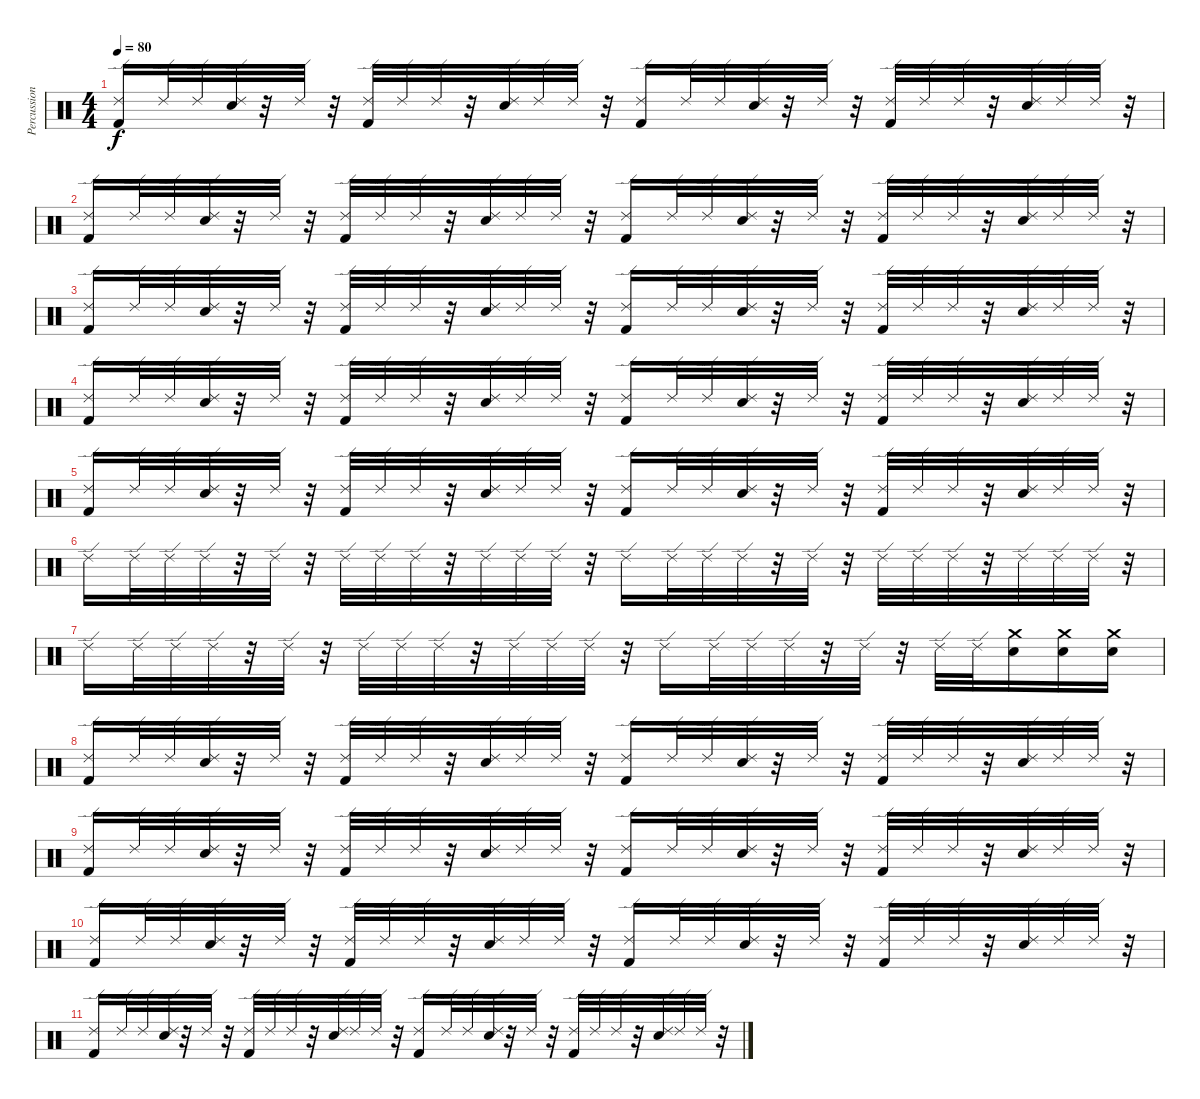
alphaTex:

\track ("Percussion" "Percussion") {instrument percussion}
\staff {score}
\articulation defaults
\ts (4 4)
\tempo 80
\clef neutral
\ks c
("Ride (edge) 2" "Kick (hit) 2").16{dy f} "Ride (edge) 2".32 "Ride (edge) 2".32 ("Ride (edge) 2" "Snare (hit) 2").32 r.32 "Ride (edge) 2".32 r.32 ("Ride (edge) 2" "Kick (hit) 2").32 "Ride (edge) 2".32 "Ride (edge) 2".32 r.32 ("Ride (edge) 2" "Snare (hit) 2").32 "Ride (edge) 2".32 "Ride (edge) 2".32 r.32 ("Ride (edge) 2" "Kick (hit) 2").16 "Ride (edge) 2".32 "Ride (edge) 2".32 ("Ride (edge) 2" "Snare (hit) 2").32 r.32 "Ride (edge) 2".32 r.32 ("Ride (edge) 2" "Kick (hit) 2").32 "Ride (edge) 2".32 "Ride (edge) 2".32 r.32 ("Ride (edge) 2" "Snare (hit) 2").32 "Ride (edge) 2".32 "Ride (edge) 2".32 r.32 |
("Ride (edge) 2" "Kick (hit) 2").16 "Ride (edge) 2".32 "Ride (edge) 2".32 ("Ride (edge) 2" "Snare (hit) 2").32 r.32 "Ride (edge) 2".32 r.32 ("Ride (edge) 2" "Kick (hit) 2").32 "Ride (edge) 2".32 "Ride (edge) 2".32 r.32 ("Ride (edge) 2" "Snare (hit) 2").32 "Ride (edge) 2".32 "Ride (edge) 2".32 r.32 ("Ride (edge) 2" "Kick (hit) 2").16 "Ride (edge) 2".32 "Ride (edge) 2".32 ("Ride (edge) 2" "Snare (hit) 2").32 r.32 "Ride (edge) 2".32 r.32 ("Ride (edge) 2" "Kick (hit) 2").32 "Ride (edge) 2".32 "Ride (edge) 2".32 r.32 ("Ride (edge) 2" "Snare (hit) 2").32 "Ride (edge) 2".32 "Ride (edge) 2".32 r.32 |
("Ride (edge) 2" "Kick (hit) 2").16 "Ride (edge) 2".32 "Ride (edge) 2".32 ("Ride (edge) 2" "Snare (hit) 2").32 r.32 "Ride (edge) 2".32 r.32 ("Ride (edge) 2" "Kick (hit) 2").32 "Ride (edge) 2".32 "Ride (edge) 2".32 r.32 ("Ride (edge) 2" "Snare (hit) 2").32 "Ride (edge) 2".32 "Ride (edge) 2".32 r.32 ("Ride (edge) 2" "Kick (hit) 2").16 "Ride (edge) 2".32 "Ride (edge) 2".32 ("Ride (edge) 2" "Snare (hit) 2").32 r.32 "Ride (edge) 2".32 r.32 ("Ride (edge) 2" "Kick (hit) 2").32 "Ride (edge) 2".32 "Ride (edge) 2".32 r.32 ("Ride (edge) 2" "Snare (hit) 2").32 "Ride (edge) 2".32 "Ride (edge) 2".32 r.32 |
("Ride (edge) 2" "Kick (hit) 2").16 "Ride (edge) 2".32 "Ride (edge) 2".32 ("Ride (edge) 2" "Snare (hit) 2").32 r.32 "Ride (edge) 2".32 r.32 ("Ride (edge) 2" "Kick (hit) 2").32 "Ride (edge) 2".32 "Ride (edge) 2".32 r.32 ("Ride (edge) 2" "Snare (hit) 2").32 "Ride (edge) 2".32 "Ride (edge) 2".32 r.32 ("Ride (edge) 2" "Kick (hit) 2").16 "Ride (edge) 2".32 "Ride (edge) 2".32 ("Ride (edge) 2" "Snare (hit) 2").32 r.32 "Ride (edge) 2".32 r.32 ("Ride (edge) 2" "Kick (hit) 2").32 "Ride (edge) 2".32 "Ride (edge) 2".32 r.32 ("Ride (edge) 2" "Snare (hit) 2").32 "Ride (edge) 2".32 "Ride (edge) 2".32 r.32 |
("Ride (edge) 2" "Kick (hit) 2").16 "Ride (edge) 2".32 "Ride (edge) 2".32 ("Ride (edge) 2" "Snare (hit) 2").32 r.32 "Ride (edge) 2".32 r.32 ("Ride (edge) 2" "Kick (hit) 2").32 "Ride (edge) 2".32 "Ride (edge) 2".32 r.32 ("Ride (edge) 2" "Snare (hit) 2").32 "Ride (edge) 2".32 "Ride (edge) 2".32 r.32 ("Ride (edge) 2" "Kick (hit) 2").16 "Ride (edge) 2".32 "Ride (edge) 2".32 ("Ride (edge) 2" "Snare (hit) 2").32 r.32 "Ride (edge) 2".32 r.32 ("Ride (edge) 2" "Kick (hit) 2").32 "Ride (edge) 2".32 "Ride (edge) 2".32 r.32 ("Ride (edge) 2" "Snare (hit) 2").32 "Ride (edge) 2".32 "Ride (edge) 2".32 r.32 |
"Ride (edge) 2".16 "Ride (edge) 2".32 "Ride (edge) 2".32 "Ride (edge) 2".32 r.32 "Ride (edge) 2".32 r.32 "Ride (edge) 2".32 "Ride (edge) 2".32 "Ride (edge) 2".32 r.32 "Ride (edge) 2".32 "Ride (edge) 2".32 "Ride (edge) 2".32 r.32 "Ride (edge) 2".16 "Ride (edge) 2".32 "Ride (edge) 2".32 "Ride (edge) 2".32 r.32 "Ride (edge) 2".32 r.32 "Ride (edge) 2".32 "Ride (edge) 2".32 "Ride (edge) 2".32 r.32 "Ride (edge) 2".32 "Ride (edge) 2".32 "Ride (edge) 2".32 r.32 |
"Ride (edge) 2".16 "Ride (edge) 2".32 "Ride (edge) 2".32 "Ride (edge) 2".32 r.32 "Ride (edge) 2".32 r.32 "Ride (edge) 2".32 "Ride (edge) 2".32 "Ride (edge) 2".32 r.32 "Ride (edge) 2".32 "Ride (edge) 2".32 "Ride (edge) 2".32 r.32 "Ride (edge) 2".16 "Ride (edge) 2".32 "Ride (edge) 2".32 "Ride (edge) 2".32 r.32 "Ride (edge) 2".32 r.32 "Ride (edge) 2".32 "Ride (edge) 2".32 ("Snare (hit) 2" "Crash medium (hit)").16 ("Snare (hit) 2" "Crash medium (hit)").16 ("Snare (hit) 2" "Crash medium (hit)").16 |
("Ride (edge) 2" "Kick (hit) 2").16 "Ride (edge) 2".32 "Ride (edge) 2".32 ("Ride (edge) 2" "Snare (hit) 2").32 r.32 "Ride (edge) 2".32 r.32 ("Ride (edge) 2" "Kick (hit) 2").32 "Ride (edge) 2".32 "Ride (edge) 2".32 r.32 ("Ride (edge) 2" "Snare (hit) 2").32 "Ride (edge) 2".32 "Ride (edge) 2".32 r.32 ("Ride (edge) 2" "Kick (hit) 2").16 "Ride (edge) 2".32 "Ride (edge) 2".32 ("Ride (edge) 2" "Snare (hit) 2").32 r.32 "Ride (edge) 2".32 r.32 ("Ride (edge) 2" "Kick (hit) 2").32 "Ride (edge) 2".32 "Ride (edge) 2".32 r.32 ("Ride (edge) 2" "Snare (hit) 2").32 "Ride (edge) 2".32 "Ride (edge) 2".32 r.32 |
("Ride (edge) 2" "Kick (hit) 2").16 "Ride (edge) 2".32 "Ride (edge) 2".32 ("Ride (edge) 2" "Snare (hit) 2").32 r.32 "Ride (edge) 2".32 r.32 ("Ride (edge) 2" "Kick (hit) 2").32 "Ride (edge) 2".32 "Ride (edge) 2".32 r.32 ("Ride (edge) 2" "Snare (hit) 2").32 "Ride (edge) 2".32 "Ride (edge) 2".32 r.32 ("Ride (edge) 2" "Kick (hit) 2").16 "Ride (edge) 2".32 "Ride (edge) 2".32 ("Ride (edge) 2" "Snare (hit) 2").32 r.32 "Ride (edge) 2".32 r.32 ("Ride (edge) 2" "Kick (hit) 2").32 "Ride (edge) 2".32 "Ride (edge) 2".32 r.32 ("Ride (edge) 2" "Snare (hit) 2").32 "Ride (edge) 2".32 "Ride (edge) 2".32 r.32 |
("Ride (edge) 2" "Kick (hit) 2").16 "Ride (edge) 2".32 "Ride (edge) 2".32 ("Ride (edge) 2" "Snare (hit) 2").32 r.32 "Ride (edge) 2".32 r.32 ("Ride (edge) 2" "Kick (hit) 2").32 "Ride (edge) 2".32 "Ride (edge) 2".32 r.32 ("Ride (edge) 2" "Snare (hit) 2").32 "Ride (edge) 2".32 "Ride (edge) 2".32 r.32 ("Ride (edge) 2" "Kick (hit) 2").16 "Ride (edge) 2".32 "Ride (edge) 2".32 ("Ride (edge) 2" "Snare (hit) 2").32 r.32 "Ride (edge) 2".32 r.32 ("Ride (edge) 2" "Kick (hit) 2").32 "Ride (edge) 2".32 "Ride (edge) 2".32 r.32 ("Ride (edge) 2" "Snare (hit) 2").32 "Ride (edge) 2".32 "Ride (edge) 2".32 r.32 |
("Ride (edge) 2" "Kick (hit) 2").16 "Ride (edge) 2".32 "Ride (edge) 2".32 ("Ride (edge) 2" "Snare (hit) 2").32 r.32 "Ride (edge) 2".32 r.32 ("Ride (edge) 2" "Kick (hit) 2").32 "Ride (edge) 2".32 "Ride (edge) 2".32 r.32 ("Ride (edge) 2" "Snare (hit) 2").32 "Ride (edge) 2".32 "Ride (edge) 2".32 r.32 ("Ride (edge) 2" "Kick (hit) 2").16 "Ride (edge) 2".32 "Ride (edge) 2".32 ("Ride (edge) 2" "Snare (hit) 2").32 r.32 "Ride (edge) 2".32 r.32 ("Ride (edge) 2" "Kick (hit) 2").32 "Ride (edge) 2".32 "Ride (edge) 2".32 r.32 ("Ride (edge) 2" "Snare (hit) 2").32 "Ride (edge) 2".32 "Ride (edge) 2".32 r.32
